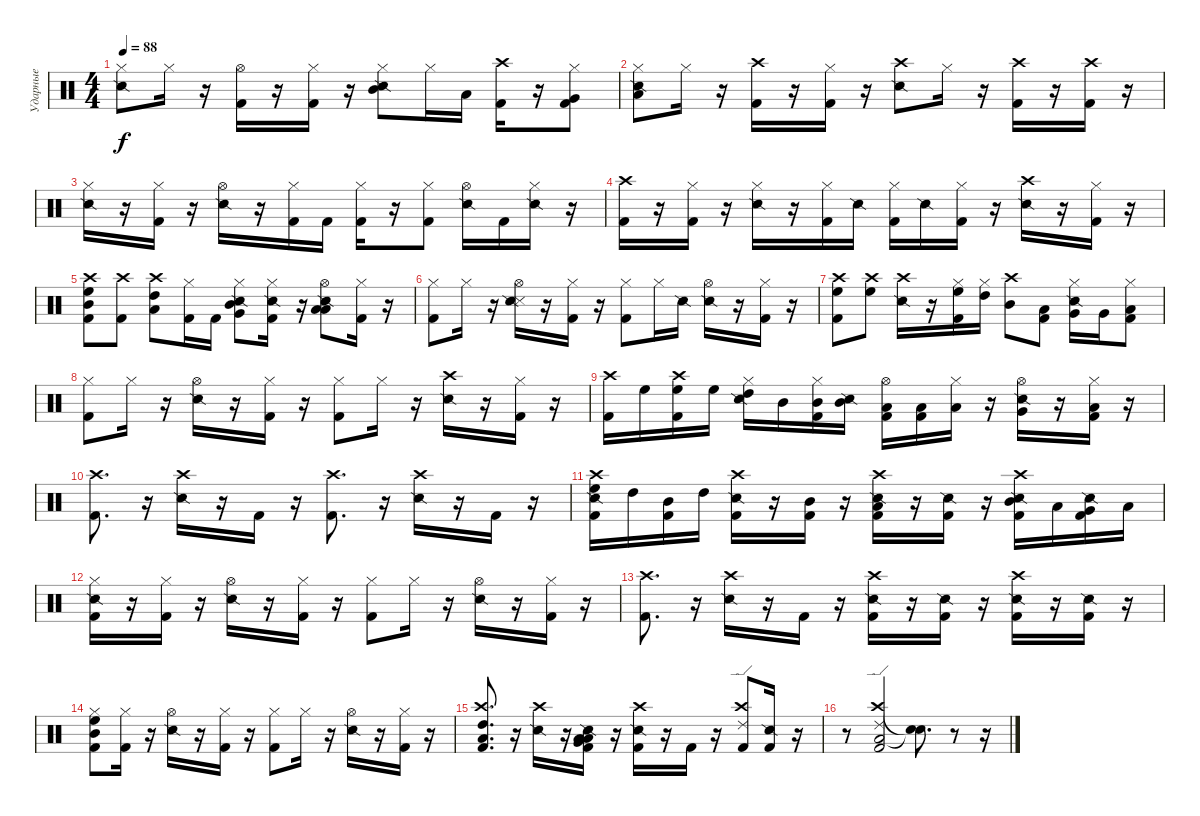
\track ("Ударные" "Ударные") {instrument percussion}
\staff {score}
\articulation defaults
\ts (4 4)
\tempo 88
\clef neutral
\ks c
("Hi-Hat (closed)" "Snare (side stick) 2").8{dy f} "Hi-Hat (closed)".16 r.16 ("Hi-Hat (open)" "Kick (hit) 2").16 r.16 ("Hi-Hat (closed)" "Kick (hit) 2").16 r.16 ("Mid Tom (hit)" "Hi-Hat (closed)" "Snare (side stick) 2").8 "Hi-Hat (closed)".16 "Low Tom (hit)".16 ("Crash high (hit)" "Kick (hit) 2").16 r.16 ("Hi-Hat (closed)" "Very Low Tom (hit)" "Kick (hit) 2").8 |
("Hi-Hat (closed)" "Low Floor Tom (hit)" "Snare (side stick) 2").8 "Hi-Hat (closed)".16 r.16 ("Crash high (hit)" "Kick (hit) 2").16 r.16 ("Hi-Hat (closed)" "Kick (hit) 2").16 r.16 ("Crash high (hit)" "Snare (side stick) 2").8 "Hi-Hat (closed)".16 r.16 ("Kick (hit) 2" "Crash high (hit)").16 r.16 ("Crash high (hit)" "Kick (hit) 2").16 r.16 |
("Hi-Hat (closed)" "Snare (side stick) 2").16 r.16 ("Hi-Hat (closed)" "Kick (hit) 2").16 r.16 ("Hi-Hat (open)" "Snare (side stick) 2").16 r.16 ("Kick (hit) 2" "Hi-Hat (closed)").16 "Kick (hit) 2".16 ("Kick (hit) 2" "Hi-Hat (closed)").16 r.16 ("Kick (hit) 2" "Hi-Hat (closed)").8 ("Hi-Hat (open)" "Snare (side stick) 2").16 "Kick (hit) 2".16 ("Hi-Hat (closed)" "Snare (side stick) 2").16 r.16 |
("Kick (hit) 2" "Crash high (hit)").16 r.16 ("Kick (hit) 2" "Hi-Hat (closed)").16 r.16 ("Hi-Hat (closed)" "Snare (side stick) 2").16 r.16 ("Kick (hit) 2" "Hi-Hat (closed)").16 "Snare (side stick) 2".16 ("Hi-Hat (closed)" "Kick (hit) 2").16 "Snare (side stick) 2".16 ("Kick (hit) 2" "Hi-Hat (closed)").16 r.16 ("Crash high (hit)" "Snare (side stick) 2").16 r.16 ("Kick (hit) 2" "Hi-Hat (closed)").16 r.16 |
("Mid Tom (hit)" "Kick (hit) 2" "Crash high (hit)" "High Floor Tom (hit)").8 ("Crash high (hit)" "Kick (hit) 2").8 ("Crash high (hit)" "Low Tom (hit)" "High Tom (hit)").8 ("Hi-Hat (closed)" "Kick (hit) 2").16 "Kick (hit) 2".16 ("Very Low Tom (hit)" "Hi-Hat (closed)" "Mid Tom (hit)" "Snare (side stick) 2").8 ("Hi-Hat (closed)" "Kick (hit) 2" "Snare (side stick) 2").16 r.16 ("Low Tom (hit)" "Low Floor Tom (hit)" "Hi-Hat (open)" "Snare (side stick) 2").8 ("Hi-Hat (closed)" "Kick (hit) 2").16 r.16 |
("Hi-Hat (closed)" "Kick (hit) 2").8 "Hi-Hat (closed)".16 r.16 ("Snare (side stick) 3" "Hi-Hat (open)" "Snare (side stick) 2").16 r.16 ("Hi-Hat (closed)" "Kick (hit) 2").16 r.16 ("Kick (hit) 2" "Hi-Hat (closed)").8 "Hi-Hat (closed)".16 "Snare (side stick) 2".16 ("Hi-Hat (open)" "Snare (side stick) 2").16 r.16 ("Kick (hit) 2" "Hi-Hat (closed)").16 r.16 |
("High Floor Tom (hit)" "Crash high (hit)" "Kick (hit) 2").8 ("High Floor Tom (hit)" "Crash high (hit)").8 ("Crash high (hit)" "Snare (side stick) 2").16 r.16 ("Hi-Hat (closed)" "Kick (hit) 2" "High Floor Tom (hit)").16 ("High Tom (hit)" "Hi-Hat (closed)").16 ("Mid Tom (hit)" "Crash high (hit)").8 ("Kick (hit) 2" "Low Tom (hit)").8 ("Very Low Tom (hit)" "Hi-Hat (closed)" "Snare (side stick) 2").16 "Very Low Tom (hit)".16 ("Low Floor Tom (hit)" "Kick (hit) 2" "Hi-Hat (closed)").8 |
("Kick (hit) 2" "Hi-Hat (closed)").8 "Hi-Hat (closed)".16 r.16 ("Hi-Hat (open)" "Snare (side stick) 2").16 r.16 ("Hi-Hat (closed)" "Kick (hit) 2").16 r.16 ("Hi-Hat (closed)" "Kick (hit) 2").8 "Hi-Hat (closed)".16 r.16 ("Crash high (hit)" "Snare (side stick) 2").16 r.16 ("Hi-Hat (closed)" "Kick (hit) 2").16 r.16 |
("Crash high (hit)" "Kick (hit) 2").16 "High Floor Tom (hit)".16 ("Kick (hit) 2" "Crash high (hit)" "High Floor Tom (hit)").16 "High Floor Tom (hit)".16 ("Hi-Hat (closed)" "High Tom (hit)" "Snare (side stick) 2").16 "Mid Tom (hit)".16 ("Kick (hit) 2" "Mid Tom (hit)" "Hi-Hat (closed)").16 ("Mid Tom (hit)" "Snare (side stick) 2").16 ("Kick (hit) 2" "Low Tom (hit)" "Hi-Hat (open)").16 ("Kick (hit) 2" "Low Tom (hit)").16 ("Hi-Hat (closed)" "Low Tom (hit)").16 r.16 ("Very Low Tom (hit)" "Hi-Hat (open)" "Snare (side stick) 2").16 r.16 ("Kick (hit) 2" "Low Floor Tom (hit)" "Hi-Hat (closed)").16 r.16 |
("Kick (hit) 2" "Crash high (hit)").8{d} r.16 ("Crash high (hit)" "Snare (side stick) 2").16 r.16 "Kick (hit) 2".16 r.16 ("Kick (hit) 2" "Crash high (hit)").8{d} r.16 ("Crash high (hit)" "Snare (side stick) 2").16 r.16 "Kick (hit) 2".16 r.16 |
("High Floor Tom (hit)" "Crash high (hit)" "Kick (hit) 2" "Snare (side stick) 2").16 "High Tom (hit)".16 ("Kick (hit) 2" "Mid Tom (hit)").16 "High Tom (hit)".16 ("Kick (hit) 2" "Crash high (hit)" "Snare (side stick) 2").16 r.16 ("Kick (hit) 2" "Mid Tom (hit)").16 r.16 ("Crash high (hit)" "Kick (hit) 2" "Low Tom (hit)" "Snare (side stick) 2").16 r.16 ("Kick (hit) 2" "Snare (side stick) 2").16 r.16 ("Kick (hit) 2" "Mid Tom (hit)" "Crash high (hit)" "Snare (side stick) 2").16 "Low Tom (hit)".16 ("Very Low Tom (hit)" "Kick (hit) 2" "Snare (side stick) 2").16 "Low Floor Tom (hit)".16 |
("Hi-Hat (closed)" "Kick (hit) 2" "Snare (side stick) 2").16 r.16 ("Hi-Hat (closed)" "Kick (hit) 2").16 r.16 ("Hi-Hat (open)" "Snare (side stick) 2").16 r.16 ("Hi-Hat (closed)" "Kick (hit) 2").16 r.16 ("Hi-Hat (closed)" "Kick (hit) 2").8 "Hi-Hat (closed)".16 r.16 ("Hi-Hat (open)" "Snare (side stick) 2").16 r.16 ("Kick (hit) 2" "Hi-Hat (closed)").16 r.16 |
("Kick (hit) 2" "Crash high (hit)").8{d} r.16 ("Crash high (hit)" "Snare (side stick) 2").16 r.16 "Kick (hit) 2".16 r.16 ("Kick (hit) 2" "Crash high (hit)" "Snare (side stick) 2").16 r.16 ("Kick (hit) 2" "Snare (side stick) 2").16 r.16 ("Kick (hit) 2" "Crash high (hit)" "Snare (side stick) 2").16 r.16 ("Kick (hit) 2" "Snare (side stick) 2").16 r.16 |
("High Floor Tom (hit)" "Kick (hit) 2" "Mid Tom (hit)" "Hi-Hat (closed)").8 ("Kick (hit) 2" "Hi-Hat (closed)").16 r.16 ("Hi-Hat (open)" "Snare (side stick) 2").16 r.16 ("Kick (hit) 2" "Hi-Hat (closed)").16 r.16 ("Kick (hit) 2" "Hi-Hat (closed)").8 "Hi-Hat (closed)".16 r.16 ("Hi-Hat (open)" "Snare (side stick) 2").16 r.16 ("Kick (hit) 2" "Hi-Hat (closed)").16 r.16 |
("Kick (hit) 2" "High Tom (hit)" "Low Tom (hit)" "Crash high (hit)").8{d} r.16 ("Crash high (hit)" "Snare (side stick) 2").16 r.16 ("Low Floor Tom (hit)" "Very Low Tom (hit)" "Low Tom (hit)" "Kick (hit) 2" "Snare (side stick) 2").16 r.16 ("Crash high (hit)" "Kick (hit) 2" "Snare (side stick) 2").16 r.16 "Kick (hit) 2".16 r.16 ("Ride (edge) 2" "Crash high (hit)" "Kick (hit) 2").8 ("Kick (hit) 2" "Snare (side stick) 2").16 r.16 |
r.8 ("Low Floor Tom (hit)" "Crash high (hit)" "Kick (hit) 2" "Ride (edge) 2").2 ("Snare (hit)"{t} "Snare (hit)"{t}).8{d} r.8 r.16
